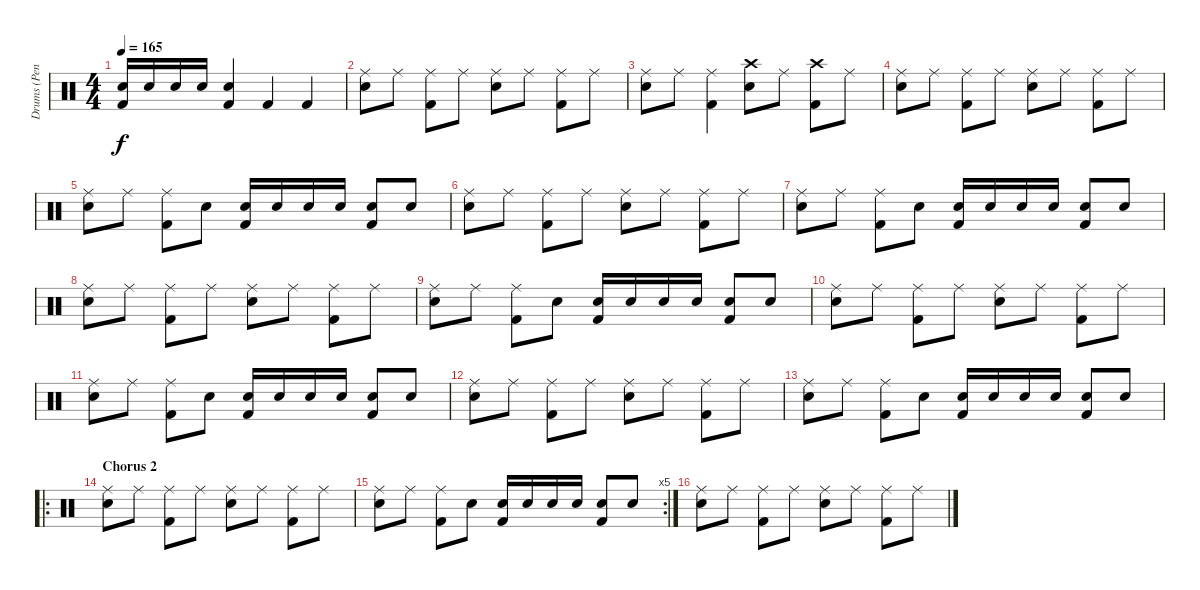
\track ("Drums (Penny Rimbaud)" "Drums (Pen") {instrument percussion}
\staff {score}
\articulation defaults
\ts (4 4)
\tempo 165
\clef neutral
\ks c
("Electric Snare (hit)" "Kick (hit) 2").16{dy f} "Electric Snare (hit)".16 "Electric Snare (hit)".16 "Electric Snare (hit)".16 ("Electric Snare (hit)" "Kick (hit) 2").4 "Kick (hit) 2".4 "Kick (hit) 2".4 |
("Ride (middle)" "Electric Snare (hit)").8 "Ride (middle)".8 ("Ride (middle)" "Kick (hit) 2").8 "Ride (middle)".8 ("Ride (middle)" "Electric Snare (hit)").8 "Ride (middle)".8 ("Ride (middle)" "Kick (hit) 2").8 "Ride (middle)".8 |
("Ride (middle)" "Electric Snare (hit)").8 "Ride (middle)".8 ("Ride (middle)" "Kick (hit) 2").4 ("Crash high (hit)" "Electric Snare (hit)").8 "Ride (middle)".8 ("Crash high (hit)" "Kick (hit) 2").8 "Ride (middle)".8 |
("Ride (middle)" "Electric Snare (hit)").8 "Ride (middle)".8 ("Ride (middle)" "Kick (hit) 2").8 "Ride (middle)".8 ("Ride (middle)" "Electric Snare (hit)").8 "Ride (middle)".8 ("Ride (middle)" "Kick (hit) 2").8 "Ride (middle)".8 |
("Ride (middle)" "Electric Snare (hit)").8 "Ride (middle)".8 ("Ride (middle)" "Kick (hit) 2").8 "Electric Snare (hit)".8 ("Electric Snare (hit)" "Kick (hit) 2").16 "Electric Snare (hit)".16 "Electric Snare (hit)".16 "Electric Snare (hit)".16 ("Electric Snare (hit)" "Kick (hit) 2").8 "Electric Snare (hit)".8 |
("Ride (middle)" "Electric Snare (hit)").8 "Ride (middle)".8 ("Ride (middle)" "Kick (hit) 2").8 "Ride (middle)".8 ("Ride (middle)" "Electric Snare (hit)").8 "Ride (middle)".8 ("Ride (middle)" "Kick (hit) 2").8 "Ride (middle)".8 |
("Ride (middle)" "Electric Snare (hit)").8 "Ride (middle)".8 ("Ride (middle)" "Kick (hit) 2").8 "Electric Snare (hit)".8 ("Electric Snare (hit)" "Kick (hit) 2").16 "Electric Snare (hit)".16 "Electric Snare (hit)".16 "Electric Snare (hit)".16 ("Electric Snare (hit)" "Kick (hit) 2").8 "Electric Snare (hit)".8 |
("Ride (middle)" "Electric Snare (hit)").8 "Ride (middle)".8 ("Ride (middle)" "Kick (hit) 2").8 "Ride (middle)".8 ("Ride (middle)" "Electric Snare (hit)").8 "Ride (middle)".8 ("Ride (middle)" "Kick (hit) 2").8 "Ride (middle)".8 |
("Ride (middle)" "Electric Snare (hit)").8 "Ride (middle)".8 ("Ride (middle)" "Kick (hit) 2").8 "Electric Snare (hit)".8 ("Electric Snare (hit)" "Kick (hit) 2").16 "Electric Snare (hit)".16 "Electric Snare (hit)".16 "Electric Snare (hit)".16 ("Electric Snare (hit)" "Kick (hit) 2").8 "Electric Snare (hit)".8 |
("Ride (middle)" "Electric Snare (hit)").8 "Ride (middle)".8 ("Ride (middle)" "Kick (hit) 2").8 "Ride (middle)".8 ("Ride (middle)" "Electric Snare (hit)").8 "Ride (middle)".8 ("Ride (middle)" "Kick (hit) 2").8 "Ride (middle)".8 |
("Ride (middle)" "Electric Snare (hit)").8 "Ride (middle)".8 ("Ride (middle)" "Kick (hit) 2").8 "Electric Snare (hit)".8 ("Electric Snare (hit)" "Kick (hit) 2").16 "Electric Snare (hit)".16 "Electric Snare (hit)".16 "Electric Snare (hit)".16 ("Electric Snare (hit)" "Kick (hit) 2").8 "Electric Snare (hit)".8 |
("Ride (middle)" "Electric Snare (hit)").8 "Ride (middle)".8 ("Ride (middle)" "Kick (hit) 2").8 "Ride (middle)".8 ("Ride (middle)" "Electric Snare (hit)").8 "Ride (middle)".8 ("Ride (middle)" "Kick (hit) 2").8 "Ride (middle)".8 |
("Ride (middle)" "Electric Snare (hit)").8 "Ride (middle)".8 ("Ride (middle)" "Kick (hit) 2").8 "Electric Snare (hit)".8 ("Electric Snare (hit)" "Kick (hit) 2").16 "Electric Snare (hit)".16 "Electric Snare (hit)".16 "Electric Snare (hit)".16 ("Electric Snare (hit)" "Kick (hit) 2").8 "Electric Snare (hit)".8 |
\ro
\section ("" "Chorus 2")
("Ride (middle)" "Electric Snare (hit)").8 "Ride (middle)".8 ("Ride (middle)" "Kick (hit) 2").8 "Ride (middle)".8 ("Ride (middle)" "Electric Snare (hit)").8 "Ride (middle)".8 ("Ride (middle)" "Kick (hit) 2").8 "Ride (middle)".8 |
\rc 5
("Ride (middle)" "Electric Snare (hit)").8 "Ride (middle)".8 ("Ride (middle)" "Kick (hit) 2").8 "Electric Snare (hit)".8 ("Electric Snare (hit)" "Kick (hit) 2").16 "Electric Snare (hit)".16 "Electric Snare (hit)".16 "Electric Snare (hit)".16 ("Electric Snare (hit)" "Kick (hit) 2").8 "Electric Snare (hit)".8 |
("Ride (middle)" "Electric Snare (hit)").8 "Ride (middle)".8 ("Ride (middle)" "Kick (hit) 2").8 "Ride (middle)".8 ("Ride (middle)" "Electric Snare (hit)").8 "Ride (middle)".8 ("Ride (middle)" "Kick (hit) 2").8 "Ride (middle)".8
